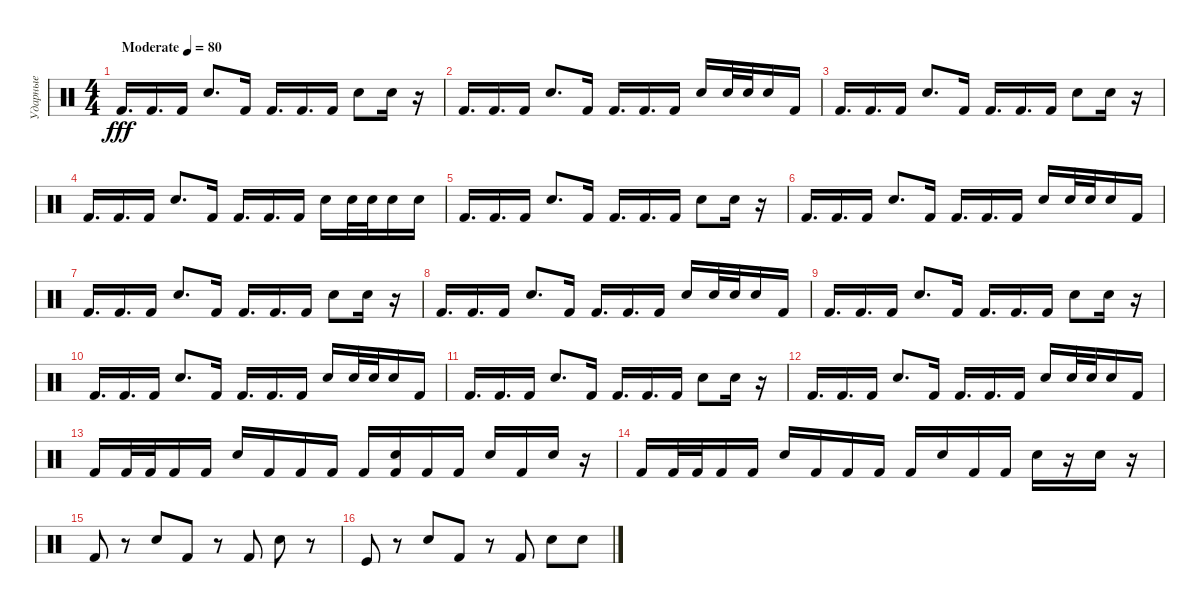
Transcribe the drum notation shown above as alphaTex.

\track ("Ударные" "Ударные") {instrument percussion}
\staff {score}
\articulation defaults
\ts (4 4)
\tempo (80 "Moderate")
\clef neutral
\ks c "Kick (hit) 2".16{d dy fff} "Kick (hit) 2".16{d} "Kick (hit) 2".16 "Electric Snare (hit)".8{d} "Kick (hit) 2".16 "Kick (hit) 2".16{d} "Kick (hit) 2".16{d} "Kick (hit) 2".16 "Electric Snare (hit)".8 "Electric Snare (hit)".16
r.16 |
"Kick (hit) 2".16{d} "Kick (hit) 2".16{d} "Kick (hit) 2".16 "Electric Snare (hit)".8{d} "Kick (hit) 2".16 "Kick (hit) 2".16{d} "Kick (hit) 2".16{d} "Kick (hit) 2".16 "Electric Snare (hit)".16 "Electric Snare (hit)".32 "Electric Snare (hit)".32 "Electric Snare (hit)".16 "Kick (hit) 2".16 |
"Kick (hit) 2".16{d} "Kick (hit) 2".16{d} "Kick (hit) 2".16 "Electric Snare (hit)".8{d} "Kick (hit) 2".16 "Kick (hit) 2".16{d} "Kick (hit) 2".16{d} "Kick (hit) 2".16 "Electric Snare (hit)".8 "Electric Snare (hit)".16 r.16 |
"Kick (hit) 2".16{d} "Kick (hit) 2".16{d} "Kick (hit) 2".16 "Electric Snare (hit)".8{d} "Kick (hit) 2".16 "Kick (hit) 2".16{d} "Kick (hit) 2".16{d} "Kick (hit) 2".16 "Electric Snare (hit)".16 "Electric Snare (hit)".32 "Electric Snare (hit)".32 "Electric Snare (hit)".16 "Electric Snare (hit)".16 |
"Kick (hit) 2".16{d} "Kick (hit) 2".16{d} "Kick (hit) 2".16 "Electric Snare (hit)".8{d} "Kick (hit) 2".16 "Kick (hit) 2".16{d} "Kick (hit) 2".16{d} "Kick (hit) 2".16 "Electric Snare (hit)".8 "Electric Snare (hit)".16 r.16 |
"Kick (hit) 2".16{d} "Kick (hit) 2".16{d} "Kick (hit) 2".16 "Electric Snare (hit)".8{d} "Kick (hit) 2".16 "Kick (hit) 2".16{d} "Kick (hit) 2".16{d} "Kick (hit) 2".16 "Electric Snare (hit)".16 "Electric Snare (hit)".32 "Electric Snare (hit)".32 "Electric Snare (hit)".16 "Kick (hit) 2".16 |
"Kick (hit) 2".16{d} "Kick (hit) 2".16{d} "Kick (hit) 2".16 "Electric Snare (hit)".8{d} "Kick (hit) 2".16 "Kick (hit) 2".16{d} "Kick (hit) 2".16{d} "Kick (hit) 2".16 "Electric Snare (hit)".8 "Electric Snare (hit)".16 r.16 |
"Kick (hit) 2".16{d} "Kick (hit) 2".16{d} "Kick (hit) 2".16 "Electric Snare (hit)".8{d} "Kick (hit) 2".16 "Kick (hit) 2".16{d} "Kick (hit) 2".16{d} "Kick (hit) 2".16 "Electric Snare (hit)".16 "Electric Snare (hit)".32 "Electric Snare (hit)".32 "Electric Snare (hit)".16 "Kick (hit) 2".16 |
"Kick (hit) 2".16{d} "Kick (hit) 2".16{d} "Kick (hit) 2".16 "Electric Snare (hit)".8{d} "Kick (hit) 2".16 "Kick (hit) 2".16{d} "Kick (hit) 2".16{d} "Kick (hit) 2".16 "Electric Snare (hit)".8 "Electric Snare (hit)".16 r.16 |
"Kick (hit) 2".16{d} "Kick (hit) 2".16{d} "Kick (hit) 2".16 "Electric Snare (hit)".8{d} "Kick (hit) 2".16 "Kick (hit) 2".16{d} "Kick (hit) 2".16{d} "Kick (hit) 2".16 "Electric Snare (hit)".16 "Electric Snare (hit)".32 "Electric Snare (hit)".32 "Electric Snare (hit)".16 "Kick (hit) 2".16 |
"Kick (hit) 2".16{d} "Kick (hit) 2".16{d} "Kick (hit) 2".16 "Electric Snare (hit)".8{d} "Kick (hit) 2".16 "Kick (hit) 2".16{d} "Kick (hit) 2".16{d} "Kick (hit) 2".16 "Electric Snare (hit)".8 "Electric Snare (hit)".16 r.16 |
"Kick (hit) 2".16{d} "Kick (hit) 2".16{d} "Kick (hit) 2".16 "Electric Snare (hit)".8{d} "Kick (hit) 2".16 "Kick (hit) 2".16{d} "Kick (hit) 2".16{d} "Kick (hit) 2".16 "Electric Snare (hit)".16 "Electric Snare (hit)".32 "Electric Snare (hit)".32 "Electric Snare (hit)".16 "Kick (hit) 2".16 |
"Kick (hit) 2".16 "Kick (hit) 2".32 "Kick (hit) 2".32 "Kick (hit) 2".16 "Kick (hit) 2".16 "Electric Snare (hit)".16 "Kick (hit) 2".16 "Kick (hit) 2".16 "Kick (hit) 2".16 "Kick (hit) 2".16 ("Kick (hit) 2" "Electric Snare (hit)").16 "Kick (hit) 2".16 "Kick (hit) 2".16 "Electric Snare (hit)".16 "Kick (hit) 2".16 "Electric Snare (hit)".16 r.16 |
"Kick (hit) 2".16 "Kick (hit) 2".32 "Kick (hit) 2".32 "Kick (hit) 2".16 "Kick (hit) 2".16 "Electric Snare (hit)".16 "Kick (hit) 2".16 "Kick (hit) 2".16 "Kick (hit) 2".16 "Kick (hit) 2".16 "Electric Snare (hit)".16 "Kick (hit) 2".16 "Kick (hit) 2".16 "Electric Snare (hit)".16 r.16 "Electric Snare (hit)".16 r.16 |
"Kick (hit) 2".8 r.8 "Electric Snare (hit)".8 "Kick (hit) 2".8 r.8 "Kick (hit) 2".8 "Electric Snare (hit)".8 r.8 |
"Kick (hit)".8 r.8 "Electric Snare (hit)".8 "Kick (hit) 2".8 r.8 "Kick (hit) 2".8 "Electric Snare (hit)".8 "Electric Snare (hit)".8
